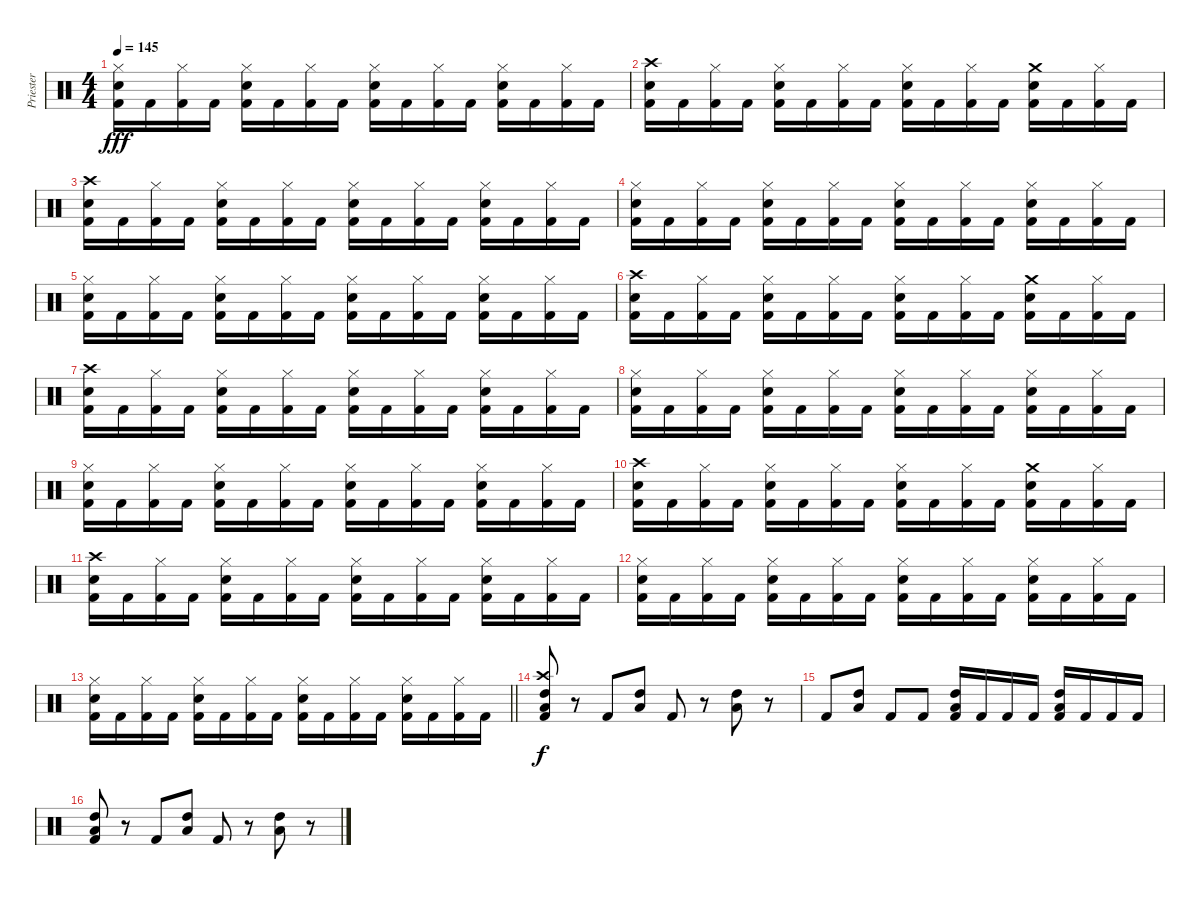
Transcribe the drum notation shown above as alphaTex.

\track ("Priester" "Priester") {instrument percussion}
\staff {score}
\articulation defaults
\ts (4 4)
\tempo 145
\clef neutral
\ks c
("Hi-Hat (closed)" "Electric Snare (hit)" "Kick (hit) 2").16{dy fff} "Kick (hit) 2".16 ("Hi-Hat (closed)" "Kick (hit) 2").16 "Kick (hit) 2".16 ("Hi-Hat (closed)" "Electric Snare (hit)" "Kick (hit) 2").16 "Kick (hit) 2".16 ("Hi-Hat (closed)" "Kick (hit) 2").16 "Kick (hit) 2".16 ("Hi-Hat (closed)" "Electric Snare (hit)" "Kick (hit) 2").16 "Kick (hit) 2".16 ("Hi-Hat (closed)" "Kick (hit) 2").16 "Kick (hit) 2".16 ("Hi-Hat (closed)" "Electric Snare (hit)" "Kick (hit) 2").16 "Kick (hit) 2".16 ("Hi-Hat (closed)" "Kick (hit) 2").16 "Kick (hit) 2".16 |
("Crash high (hit)" "Electric Snare (hit)" "Kick (hit) 2").16 "Kick (hit) 2".16 ("Hi-Hat (closed)" "Kick (hit) 2").16 "Kick (hit) 2".16 ("Hi-Hat (closed)" "Electric Snare (hit)" "Kick (hit) 2").16 "Kick (hit) 2".16 ("Hi-Hat (closed)" "Kick (hit) 2").16 "Kick (hit) 2".16 ("Hi-Hat (closed)" "Electric Snare (hit)" "Kick (hit) 2").16 "Kick (hit) 2".16 ("Hi-Hat (closed)" "Kick (hit) 2").16 "Kick (hit) 2".16 ("Crash medium (hit)" "Electric Snare (hit)" "Kick (hit) 2").16 "Kick (hit) 2".16 ("Hi-Hat (closed)" "Kick (hit) 2").16 "Kick (hit) 2".16 |
("Crash high (hit)" "Electric Snare (hit)" "Kick (hit) 2").16 "Kick (hit) 2".16 ("Hi-Hat (closed)" "Kick (hit) 2").16 "Kick (hit) 2".16 ("Hi-Hat (closed)" "Electric Snare (hit)" "Kick (hit) 2").16 "Kick (hit) 2".16 ("Hi-Hat (closed)" "Kick (hit) 2").16 "Kick (hit) 2".16 ("Hi-Hat (closed)" "Electric Snare (hit)" "Kick (hit) 2").16 "Kick (hit) 2".16 ("Hi-Hat (closed)" "Kick (hit) 2").16 "Kick (hit) 2".16 ("Hi-Hat (closed)" "Electric Snare (hit)" "Kick (hit) 2").16 "Kick (hit) 2".16 ("Hi-Hat (closed)" "Kick (hit) 2").16 "Kick (hit) 2".16 |
("Hi-Hat (closed)" "Electric Snare (hit)" "Kick (hit) 2").16 "Kick (hit) 2".16 ("Hi-Hat (closed)" "Kick (hit) 2").16 "Kick (hit) 2".16 ("Hi-Hat (closed)" "Electric Snare (hit)" "Kick (hit) 2").16 "Kick (hit) 2".16 ("Hi-Hat (closed)" "Kick (hit) 2").16 "Kick (hit) 2".16 ("Hi-Hat (closed)" "Electric Snare (hit)" "Kick (hit) 2").16 "Kick (hit) 2".16 ("Hi-Hat (closed)" "Kick (hit) 2").16 "Kick (hit) 2".16 ("Hi-Hat (closed)" "Electric Snare (hit)" "Kick (hit) 2").16 "Kick (hit) 2".16 ("Hi-Hat (closed)" "Kick (hit) 2").16 "Kick (hit) 2".16 |
("Hi-Hat (closed)" "Electric Snare (hit)" "Kick (hit) 2").16 "Kick (hit) 2".16 ("Hi-Hat (closed)" "Kick (hit) 2").16 "Kick (hit) 2".16 ("Hi-Hat (closed)" "Electric Snare (hit)" "Kick (hit) 2").16 "Kick (hit) 2".16 ("Hi-Hat (closed)" "Kick (hit) 2").16 "Kick (hit) 2".16 ("Hi-Hat (closed)" "Electric Snare (hit)" "Kick (hit) 2").16 "Kick (hit) 2".16 ("Hi-Hat (closed)" "Kick (hit) 2").16 "Kick (hit) 2".16 ("Hi-Hat (closed)" "Electric Snare (hit)" "Kick (hit) 2").16 "Kick (hit) 2".16 ("Hi-Hat (closed)" "Kick (hit) 2").16 "Kick (hit) 2".16 |
("Crash high (hit)" "Electric Snare (hit)" "Kick (hit) 2").16 "Kick (hit) 2".16 ("Hi-Hat (closed)" "Kick (hit) 2").16 "Kick (hit) 2".16 ("Hi-Hat (closed)" "Electric Snare (hit)" "Kick (hit) 2").16 "Kick (hit) 2".16 ("Hi-Hat (closed)" "Kick (hit) 2").16 "Kick (hit) 2".16 ("Hi-Hat (closed)" "Electric Snare (hit)" "Kick (hit) 2").16 "Kick (hit) 2".16 ("Hi-Hat (closed)" "Kick (hit) 2").16 "Kick (hit) 2".16 ("Crash medium (hit)" "Electric Snare (hit)" "Kick (hit) 2").16 "Kick (hit) 2".16 ("Hi-Hat (closed)" "Kick (hit) 2").16 "Kick (hit) 2".16 |
("Crash high (hit)" "Electric Snare (hit)" "Kick (hit) 2").16 "Kick (hit) 2".16 ("Hi-Hat (closed)" "Kick (hit) 2").16 "Kick (hit) 2".16 ("Hi-Hat (closed)" "Electric Snare (hit)" "Kick (hit) 2").16 "Kick (hit) 2".16 ("Hi-Hat (closed)" "Kick (hit) 2").16 "Kick (hit) 2".16 ("Hi-Hat (closed)" "Electric Snare (hit)" "Kick (hit) 2").16 "Kick (hit) 2".16 ("Hi-Hat (closed)" "Kick (hit) 2").16 "Kick (hit) 2".16 ("Hi-Hat (closed)" "Electric Snare (hit)" "Kick (hit) 2").16 "Kick (hit) 2".16 ("Hi-Hat (closed)" "Kick (hit) 2").16 "Kick (hit) 2".16 |
("Hi-Hat (closed)" "Electric Snare (hit)" "Kick (hit) 2").16 "Kick (hit) 2".16 ("Hi-Hat (closed)" "Kick (hit) 2").16 "Kick (hit) 2".16 ("Hi-Hat (closed)" "Electric Snare (hit)" "Kick (hit) 2").16 "Kick (hit) 2".16 ("Hi-Hat (closed)" "Kick (hit) 2").16 "Kick (hit) 2".16 ("Hi-Hat (closed)" "Electric Snare (hit)" "Kick (hit) 2").16 "Kick (hit) 2".16 ("Hi-Hat (closed)" "Kick (hit) 2").16 "Kick (hit) 2".16 ("Hi-Hat (closed)" "Electric Snare (hit)" "Kick (hit) 2").16 "Kick (hit) 2".16 ("Hi-Hat (closed)" "Kick (hit) 2").16 "Kick (hit) 2".16 |
("Hi-Hat (closed)" "Electric Snare (hit)" "Kick (hit) 2").16 "Kick (hit) 2".16 ("Hi-Hat (closed)" "Kick (hit) 2").16 "Kick (hit) 2".16 ("Hi-Hat (closed)" "Electric Snare (hit)" "Kick (hit) 2").16 "Kick (hit) 2".16 ("Hi-Hat (closed)" "Kick (hit) 2").16 "Kick (hit) 2".16 ("Hi-Hat (closed)" "Electric Snare (hit)" "Kick (hit) 2").16 "Kick (hit) 2".16 ("Hi-Hat (closed)" "Kick (hit) 2").16 "Kick (hit) 2".16 ("Hi-Hat (closed)" "Electric Snare (hit)" "Kick (hit) 2").16 "Kick (hit) 2".16 ("Hi-Hat (closed)" "Kick (hit) 2").16 "Kick (hit) 2".16 |
("Crash high (hit)" "Electric Snare (hit)" "Kick (hit) 2").16 "Kick (hit) 2".16 ("Hi-Hat (closed)" "Kick (hit) 2").16 "Kick (hit) 2".16 ("Hi-Hat (closed)" "Electric Snare (hit)" "Kick (hit) 2").16 "Kick (hit) 2".16 ("Hi-Hat (closed)" "Kick (hit) 2").16 "Kick (hit) 2".16 ("Hi-Hat (closed)" "Electric Snare (hit)" "Kick (hit) 2").16 "Kick (hit) 2".16 ("Hi-Hat (closed)" "Kick (hit) 2").16 "Kick (hit) 2".16 ("Crash medium (hit)" "Electric Snare (hit)" "Kick (hit) 2").16 "Kick (hit) 2".16 ("Hi-Hat (closed)" "Kick (hit) 2").16 "Kick (hit) 2".16 |
("Crash high (hit)" "Electric Snare (hit)" "Kick (hit) 2").16 "Kick (hit) 2".16 ("Hi-Hat (closed)" "Kick (hit) 2").16 "Kick (hit) 2".16 ("Hi-Hat (closed)" "Electric Snare (hit)" "Kick (hit) 2").16 "Kick (hit) 2".16 ("Hi-Hat (closed)" "Kick (hit) 2").16 "Kick (hit) 2".16 ("Hi-Hat (closed)" "Electric Snare (hit)" "Kick (hit) 2").16 "Kick (hit) 2".16 ("Hi-Hat (closed)" "Kick (hit) 2").16 "Kick (hit) 2".16 ("Hi-Hat (closed)" "Electric Snare (hit)" "Kick (hit) 2").16 "Kick (hit) 2".16 ("Hi-Hat (closed)" "Kick (hit) 2").16 "Kick (hit) 2".16 |
("Hi-Hat (closed)" "Electric Snare (hit)" "Kick (hit) 2").16 "Kick (hit) 2".16 ("Hi-Hat (closed)" "Kick (hit) 2").16 "Kick (hit) 2".16 ("Hi-Hat (closed)" "Electric Snare (hit)" "Kick (hit) 2").16 "Kick (hit) 2".16 ("Hi-Hat (closed)" "Kick (hit) 2").16 "Kick (hit) 2".16 ("Hi-Hat (closed)" "Electric Snare (hit)" "Kick (hit) 2").16 "Kick (hit) 2".16 ("Hi-Hat (closed)" "Kick (hit) 2").16 "Kick (hit) 2".16 ("Hi-Hat (closed)" "Electric Snare (hit)" "Kick (hit) 2").16 "Kick (hit) 2".16 ("Hi-Hat (closed)" "Kick (hit) 2").16 "Kick (hit) 2".16 |
\barLineRight lightlight
("Hi-Hat (closed)" "Electric Snare (hit)" "Kick (hit) 2").16 "Kick (hit) 2".16 ("Hi-Hat (closed)" "Kick (hit) 2").16 "Kick (hit) 2".16 ("Hi-Hat (closed)" "Electric Snare (hit)" "Kick (hit) 2").16 "Kick (hit) 2".16 ("Hi-Hat (closed)" "Kick (hit) 2").16 "Kick (hit) 2".16 ("Hi-Hat (closed)" "Electric Snare (hit)" "Kick (hit) 2").16 "Kick (hit) 2".16 ("Hi-Hat (closed)" "Kick (hit) 2").16 "Kick (hit) 2".16 ("Hi-Hat (closed)" "Electric Snare (hit)" "Kick (hit) 2").16 "Kick (hit) 2".16 ("Hi-Hat (closed)" "Kick (hit) 2").16 "Kick (hit) 2".16 |
("Crash high (hit)" "High Tom (hit)" "Low Floor Tom (hit)" "Kick (hit) 2").8{dy f} r.8 "Kick (hit) 2".8 ("High Tom (hit)" "Low Floor Tom (hit)").8 "Kick (hit) 2".8 r.8 ("High Tom (hit)" "Low Floor Tom (hit)").8 r.8 |
"Kick (hit) 2".8 ("High Tom (hit)" "Low Floor Tom (hit)").8 "Kick (hit) 2".8 "Kick (hit) 2".8 ("High Tom (hit)" "Low Floor Tom (hit)" "Kick (hit) 2").16 "Kick (hit) 2".16 "Kick (hit) 2".16 "Kick (hit) 2".16 ("High Tom (hit)" "Low Floor Tom (hit)" "Kick (hit) 2").16 "Kick (hit) 2".16 "Kick (hit) 2".16 "Kick (hit) 2".16 |
("High Tom (hit)" "Low Floor Tom (hit)" "Kick (hit) 2").8 r.8 "Kick (hit) 2".8 ("High Tom (hit)" "Low Floor Tom (hit)").8 "Kick (hit) 2".8 r.8 ("High Tom (hit)" "Low Floor Tom (hit)").8 r.8
